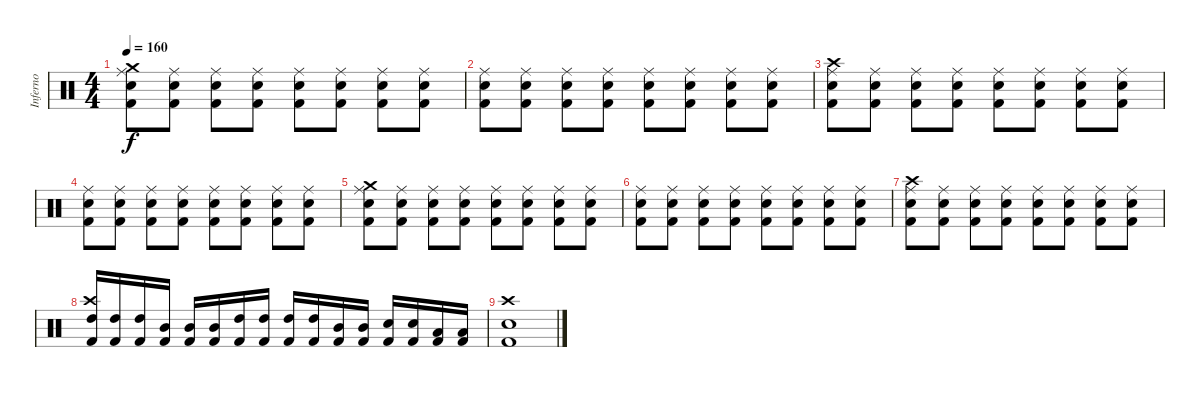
\track ("Inferno" "Inferno") {instrument percussion}
\staff {score}
\articulation defaults
\ts (4 4)
\tempo 160
\clef neutral
\ks c
("Crash medium (hit)" "Ride (middle)" "Electric Snare (hit)" "Kick (hit) 2").8{dy f} ("Ride (middle)" "Electric Snare (hit)" "Kick (hit) 2").8 ("Ride (middle)" "Electric Snare (hit)" "Kick (hit) 2").8 ("Ride (middle)" "Electric Snare (hit)" "Kick (hit) 2").8 ("Ride (middle)" "Electric Snare (hit)" "Kick (hit) 2").8 ("Ride (middle)" "Electric Snare (hit)" "Kick (hit) 2").8 ("Ride (middle)" "Electric Snare (hit)" "Kick (hit) 2").8 ("Ride (middle)" "Electric Snare (hit)" "Kick (hit) 2").8 |
("Ride (middle)" "Electric Snare (hit)" "Kick (hit) 2").8 ("Ride (middle)" "Electric Snare (hit)" "Kick (hit) 2").8 ("Ride (middle)" "Electric Snare (hit)" "Kick (hit) 2").8 ("Ride (middle)" "Electric Snare (hit)" "Kick (hit) 2").8 ("Ride (middle)" "Electric Snare (hit)" "Kick (hit) 2").8 ("Ride (middle)" "Electric Snare (hit)" "Kick (hit) 2").8 ("Ride (middle)" "Electric Snare (hit)" "Kick (hit) 2").8 ("Ride (middle)" "Electric Snare (hit)" "Kick (hit) 2").8 |
("Crash high (hit)" "Ride (middle)" "Electric Snare (hit)" "Kick (hit) 2").8 ("Ride (middle)" "Electric Snare (hit)" "Kick (hit) 2").8 ("Ride (middle)" "Electric Snare (hit)" "Kick (hit) 2").8 ("Ride (middle)" "Electric Snare (hit)" "Kick (hit) 2").8 ("Ride (middle)" "Electric Snare (hit)" "Kick (hit) 2").8 ("Ride (middle)" "Electric Snare (hit)" "Kick (hit) 2").8 ("Ride (middle)" "Electric Snare (hit)" "Kick (hit) 2").8 ("Ride (middle)" "Electric Snare (hit)" "Kick (hit) 2").8 |
("Ride (middle)" "Electric Snare (hit)" "Kick (hit) 2").8 ("Ride (middle)" "Electric Snare (hit)" "Kick (hit) 2").8 ("Ride (middle)" "Electric Snare (hit)" "Kick (hit) 2").8 ("Ride (middle)" "Electric Snare (hit)" "Kick (hit) 2").8 ("Ride (middle)" "Electric Snare (hit)" "Kick (hit) 2").8 ("Ride (middle)" "Electric Snare (hit)" "Kick (hit) 2").8 ("Ride (middle)" "Electric Snare (hit)" "Kick (hit) 2").8 ("Ride (middle)" "Electric Snare (hit)" "Kick (hit) 2").8 |
("Crash medium (hit)" "Ride (middle)" "Electric Snare (hit)" "Kick (hit) 2").8 ("Ride (middle)" "Electric Snare (hit)" "Kick (hit) 2").8 ("Ride (middle)" "Electric Snare (hit)" "Kick (hit) 2").8 ("Ride (middle)" "Electric Snare (hit)" "Kick (hit) 2").8 ("Ride (middle)" "Electric Snare (hit)" "Kick (hit) 2").8 ("Ride (middle)" "Electric Snare (hit)" "Kick (hit) 2").8 ("Ride (middle)" "Electric Snare (hit)" "Kick (hit) 2").8 ("Ride (middle)" "Electric Snare (hit)" "Kick (hit) 2").8 |
("Ride (middle)" "Electric Snare (hit)" "Kick (hit) 2").8 ("Ride (middle)" "Electric Snare (hit)" "Kick (hit) 2").8 ("Ride (middle)" "Electric Snare (hit)" "Kick (hit) 2").8 ("Ride (middle)" "Electric Snare (hit)" "Kick (hit) 2").8 ("Ride (middle)" "Electric Snare (hit)" "Kick (hit) 2").8 ("Ride (middle)" "Electric Snare (hit)" "Kick (hit) 2").8 ("Ride (middle)" "Electric Snare (hit)" "Kick (hit) 2").8 ("Ride (middle)" "Electric Snare (hit)" "Kick (hit) 2").8 |
("Crash high (hit)" "Ride (middle)" "Electric Snare (hit)" "Kick (hit) 2").8 ("Ride (middle)" "Electric Snare (hit)" "Kick (hit) 2").8 ("Ride (middle)" "Electric Snare (hit)" "Kick (hit) 2").8 ("Ride (middle)" "Electric Snare (hit)" "Kick (hit) 2").8 ("Ride (middle)" "Electric Snare (hit)" "Kick (hit) 2").8 ("Ride (middle)" "Electric Snare (hit)" "Kick (hit) 2").8 ("Ride (middle)" "Electric Snare (hit)" "Kick (hit) 2").8 ("Ride (middle)" "Electric Snare (hit)" "Kick (hit) 2").8 |
("Crash high (hit)" "High Tom (hit)" "Kick (hit) 2").16 ("High Tom (hit)" "Kick (hit) 2").16 ("High Tom (hit)" "Kick (hit) 2").16 ("Mid Tom (hit)" "Kick (hit) 2").16 ("Mid Tom (hit)" "Kick (hit) 2").16 ("Mid Tom (hit)" "Kick (hit) 2").16 ("High Tom (hit)" "Kick (hit) 2").16 ("High Tom (hit)" "Kick (hit) 2").16 ("High Tom (hit)" "Kick (hit) 2").16 ("High Tom (hit)" "Kick (hit) 2").16 ("Mid Tom (hit)" "Kick (hit) 2").16 ("Mid Tom (hit)" "Kick (hit) 2").16 ("Electric Snare (hit)" "Kick (hit) 2").16 ("Electric Snare (hit)" "Kick (hit) 2").16 ("Low Tom (hit)" "Kick (hit) 2").16 ("Low Tom (hit)" "Kick (hit) 2").16 |
("Crash high (hit)" "Electric Snare (hit)" "Kick (hit) 2").1
